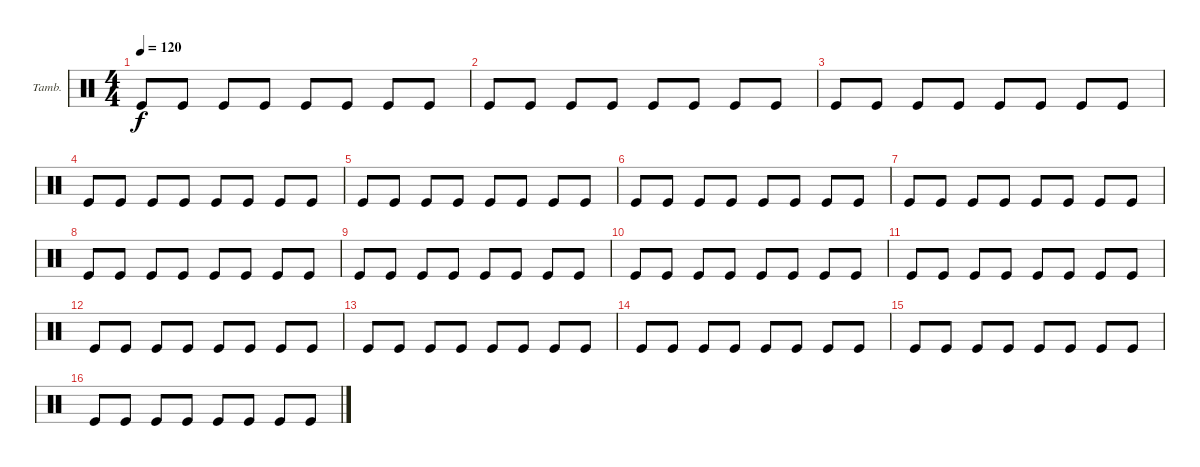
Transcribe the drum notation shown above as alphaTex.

\defaultSystemsLayout 4
\bracketExtendMode groupsimilarinstruments
\firstSystemTrackNameOrientation horizontal
\otherSystemsTrackNameOrientation horizontal
\track ("Tambourine" "Tamb.") {multiBarRest instrument percussion}
\staff {score}
\articulation defaults
\ts (4 4)
\tempo 120
\clef neutral
\ks c "Kick (hit)".8{dy f} "Kick (hit)".8 "Kick (hit)".8 "Kick (hit)".8 "Kick (hit)".8 "Kick (hit)".8 "Kick (hit)".8 "Kick (hit)".8
|
"Kick (hit)".8 "Kick (hit)".8 "Kick (hit)".8 "Kick (hit)".8 "Kick (hit)".8 "Kick (hit)".8 "Kick (hit)".8 "Kick (hit)".8 |
"Kick (hit)".8 "Kick (hit)".8 "Kick (hit)".8 "Kick (hit)".8 "Kick (hit)".8 "Kick (hit)".8 "Kick (hit)".8 "Kick (hit)".8 |
"Kick (hit)".8 "Kick (hit)".8 "Kick (hit)".8 "Kick (hit)".8 "Kick (hit)".8 "Kick (hit)".8 "Kick (hit)".8 "Kick (hit)".8 |
"Kick (hit)".8 "Kick (hit)".8 "Kick (hit)".8 "Kick (hit)".8 "Kick (hit)".8 "Kick (hit)".8 "Kick (hit)".8 "Kick (hit)".8 |
"Kick (hit)".8 "Kick (hit)".8 "Kick (hit)".8 "Kick (hit)".8 "Kick (hit)".8 "Kick (hit)".8 "Kick (hit)".8 "Kick (hit)".8 |
"Kick (hit)".8 "Kick (hit)".8 "Kick (hit)".8 "Kick (hit)".8 "Kick (hit)".8 "Kick (hit)".8 "Kick (hit)".8 "Kick (hit)".8 |
"Kick (hit)".8 "Kick (hit)".8 "Kick (hit)".8 "Kick (hit)".8 "Kick (hit)".8 "Kick (hit)".8 "Kick (hit)".8 "Kick (hit)".8 |
"Kick (hit)".8 "Kick (hit)".8 "Kick (hit)".8 "Kick (hit)".8 "Kick (hit)".8 "Kick (hit)".8 "Kick (hit)".8 "Kick (hit)".8 |
"Kick (hit)".8 "Kick (hit)".8 "Kick (hit)".8 "Kick (hit)".8 "Kick (hit)".8 "Kick (hit)".8 "Kick (hit)".8 "Kick (hit)".8 |
"Kick (hit)".8 "Kick (hit)".8 "Kick (hit)".8 "Kick (hit)".8 "Kick (hit)".8 "Kick (hit)".8 "Kick (hit)".8 "Kick (hit)".8 |
"Kick (hit)".8 "Kick (hit)".8 "Kick (hit)".8 "Kick (hit)".8 "Kick (hit)".8 "Kick (hit)".8 "Kick (hit)".8 "Kick (hit)".8 |
"Kick (hit)".8 "Kick (hit)".8 "Kick (hit)".8 "Kick (hit)".8 "Kick (hit)".8 "Kick (hit)".8 "Kick (hit)".8 "Kick (hit)".8 |
"Kick (hit)".8 "Kick (hit)".8 "Kick (hit)".8 "Kick (hit)".8 "Kick (hit)".8 "Kick (hit)".8 "Kick (hit)".8 "Kick (hit)".8 |
"Kick (hit)".8 "Kick (hit)".8 "Kick (hit)".8 "Kick (hit)".8 "Kick (hit)".8 "Kick (hit)".8 "Kick (hit)".8 "Kick (hit)".8 |
"Kick (hit)".8 "Kick (hit)".8 "Kick (hit)".8 "Kick (hit)".8 "Kick (hit)".8 "Kick (hit)".8 "Kick (hit)".8 "Kick (hit)".8
